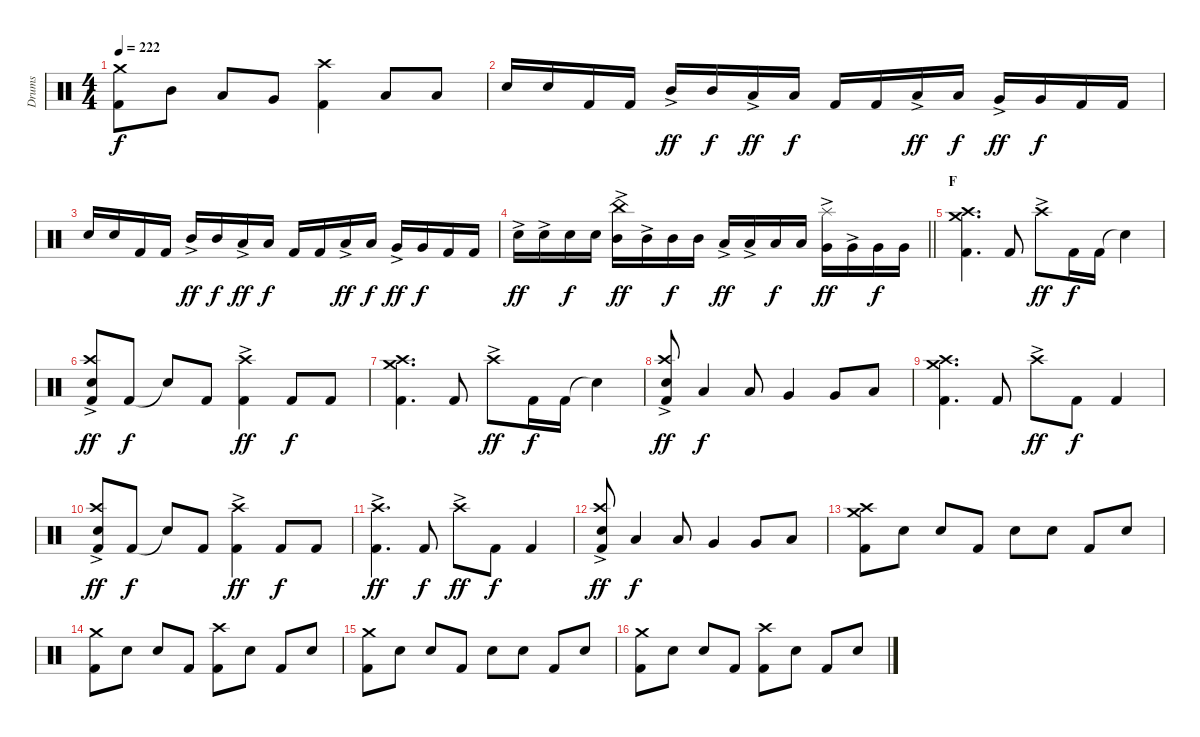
\track ("Drums" "Drums") {instrument percussion}
\staff {score}
\articulation defaults
\ts (4 4)
\tempo 222
\clef neutral
\ks c
("Crash medium (hit)" "Kick (hit) 2").8{dy f} "Mid Tom (hit)".8 "Low Tom (hit)".8 "Very Low Tom (hit)".8 ("Crash high (hit)" "Kick (hit) 2").4 "Low Tom (hit)".8 "Low Floor Tom (hit)".8 |
"Electric Snare (hit)".16 "Electric Snare (hit)".16 "Kick (hit) 2".16 "Kick (hit) 2".16 "Mid Tom (hit)"{ac}.16{dy ff} "Mid Tom (hit)".16{dy f} "Low Tom (hit)"{ac}.16{dy ff} "Low Tom (hit)".16{dy f} "Kick (hit) 2".16 "Kick (hit) 2".16 "Low Tom (hit)"{ac}.16{dy ff} "Low Tom (hit)".16{dy f} "Very Low Tom (hit)"{ac}.16{dy ff} "Very Low Tom (hit)".16{dy f} "Kick (hit) 2".16 "Kick (hit) 2".16 |
"Electric Snare (hit)".16 "Electric Snare (hit)".16 "Kick (hit) 2".16 "Kick (hit) 2".16 "Mid Tom (hit)"{ac}.16{dy ff} "Mid Tom (hit)".16{dy f} "Low Tom (hit)"{ac}.16{dy ff} "Low Tom (hit)".16{dy f} "Kick (hit) 2".16 "Kick (hit) 2".16 "Low Tom (hit)"{ac}.16{dy ff} "Low Tom (hit)".16{dy f} "Very Low Tom (hit)"{ac}.16{dy ff} "Very Low Tom (hit)".16{dy f} "Kick (hit) 2".16 "Kick (hit) 2".16 |
\barLineRight lightlight "Electric Snare (hit)"{ac}.16{dy ff} "Electric Snare (hit)"{ac}.16 "Electric Snare (hit)".16{dy f} "Electric Snare (hit)".16
("China (hit)" "Mid Tom (hit)"{ac}).16{dy ff} "Mid Tom (hit)"{ac}.16 "Mid Tom (hit)".16{dy f} "Mid Tom (hit)".16 "Low Tom (hit)"{ac}.16{dy ff} "Low Tom (hit)"{ac}.16 "Low Tom (hit)".16{dy f} "Low Tom (hit)".16 ("Splash (hit)" "Very Low Tom (hit)"{ac}).16{dy ff} "Very Low Tom (hit)"{ac}.16 "Very Low Tom (hit)".16{dy f} "Very Low Tom (hit)".16 |
\section ("" "F")
("Crash medium (hit)" "Crash high (hit)" "Kick (hit) 2").4{d} "Kick (hit) 2".8 "Crash high (hit)"{ac}.8{dy ff} "Kick (hit) 2".16{dy f} "Kick (hit) 2".16 "Snare (hit)"{t}.4 |
("Crash high (hit)"{ac} "Electric Snare (hit)" "Kick (hit) 2").8{dy ff} "Kick (hit) 2".8{dy f} "Snare (hit)"{t}.8 "Kick (hit) 2".8 ("Crash high (hit)"{ac} "Kick (hit) 2").4{dy ff} "Kick (hit) 2".8{dy f} "Kick (hit) 2".8 |
("Crash medium (hit)" "Crash high (hit)" "Kick (hit) 2").4{d} "Kick (hit) 2".8 "Crash high (hit)"{ac}.8{dy ff} "Kick (hit) 2".16{dy f} "Kick (hit) 2".16 "Snare (hit)"{t}.4 |
("Crash high (hit)"{ac} "Electric Snare (hit)" "Kick (hit) 2").8{dy ff} "Low Tom (hit)".4{dy f} "Low Tom (hit)".8 "Very Low Tom (hit)".4 "Very Low Tom (hit)".8 "Low Floor Tom (hit)".8 |
("Crash medium (hit)" "Crash high (hit)" "Kick (hit) 2").4{d} "Kick (hit) 2".8 "Crash high (hit)"{ac}.8{dy ff} "Kick (hit) 2".8{dy f} "Kick (hit) 2".4 |
("Crash high (hit)"{ac} "Electric Snare (hit)" "Kick (hit) 2").8{dy ff} "Kick (hit) 2".8{dy f} "Snare (hit)"{t}.8 "Kick (hit) 2".8 ("Crash high (hit)"{ac} "Kick (hit) 2").4{dy ff} "Kick (hit) 2".8{dy f} "Kick (hit) 2".8 |
("Crash high (hit)"{ac} "Kick (hit) 2").4{d dy ff} "Kick (hit) 2".8{dy f} "Crash high (hit)"{ac}.8{dy ff} "Kick (hit) 2".8{dy f} "Kick (hit) 2".4 |
("Crash high (hit)"{ac} "Electric Snare (hit)" "Kick (hit) 2").8{dy ff} "Low Tom (hit)".4{dy f} "Low Tom (hit)".8 "Very Low Tom (hit)".4 "Very Low Tom (hit)".8 "Low Floor Tom (hit)".8 |
("Crash medium (hit)" "Crash high (hit)" "Kick (hit) 2").8 "Electric Snare (hit)".8 "Electric Snare (hit)".8 "Kick (hit) 2".8 "Electric Snare (hit)".8 "Electric Snare (hit)".8 "Kick (hit) 2".8 "Electric Snare (hit)".8 |
("Crash medium (hit)" "Kick (hit) 2").8 "Electric Snare (hit)".8 "Electric Snare (hit)".8 "Kick (hit) 2".8 ("Crash high (hit)" "Kick (hit) 2").8 "Electric Snare (hit)".8 "Kick (hit) 2".8 "Electric Snare (hit)".8 |
("Crash medium (hit)" "Kick (hit) 2").8 "Electric Snare (hit)".8 "Electric Snare (hit)".8 "Kick (hit) 2".8 "Electric Snare (hit)".8 "Electric Snare (hit)".8 "Kick (hit) 2".8 "Electric Snare (hit)".8 |
("Crash medium (hit)" "Kick (hit) 2").8 "Electric Snare (hit)".8 "Electric Snare (hit)".8 "Kick (hit) 2".8 ("Crash high (hit)" "Kick (hit) 2").8 "Electric Snare (hit)".8 "Kick (hit) 2".8 "Electric Snare (hit)".8
